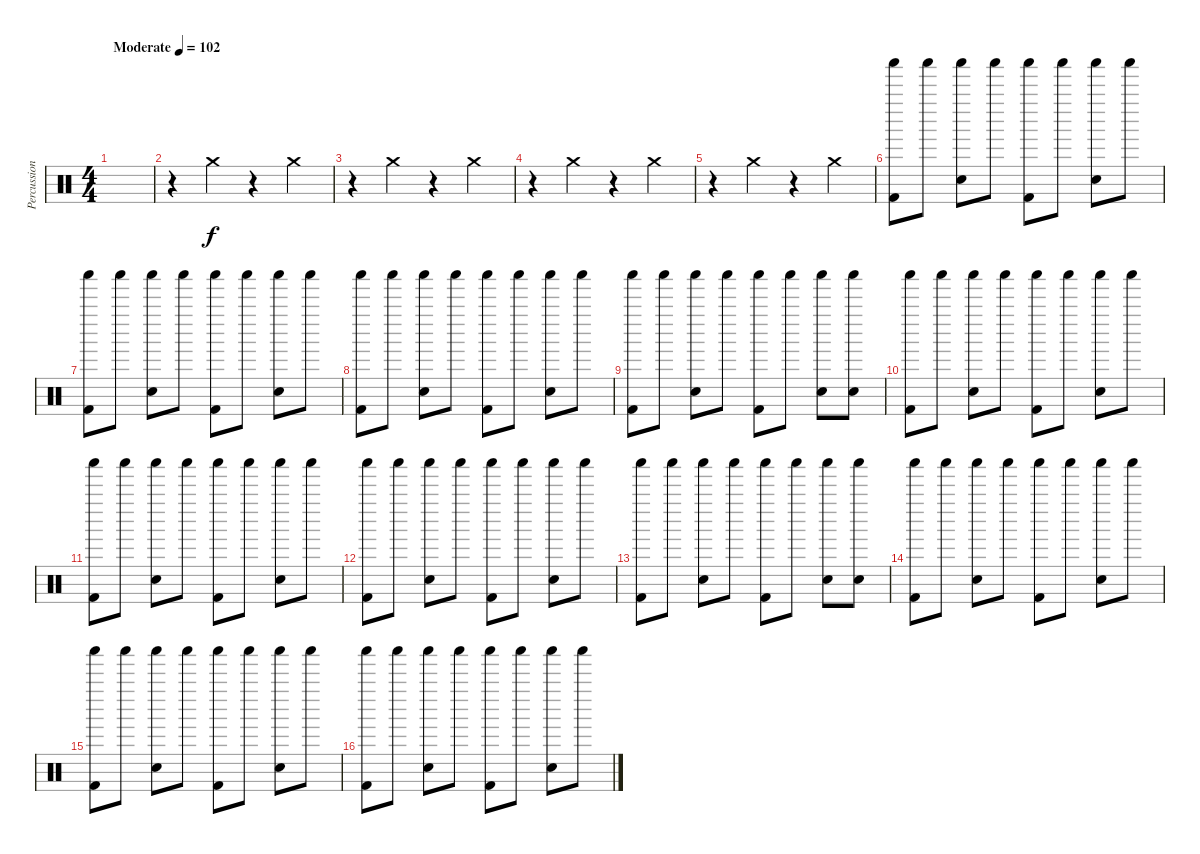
\track ("Percussioni" "Percussion") {instrument percussion}
\staff {score}
\articulation defaults
\ts (4 4)
\tempo (102 "Moderate")
\clef neutral
\ks c
|
r.4 "Crash medium (hit)".4 r.4 "Crash medium (hit)".4 |
r.4 "Crash medium (hit)".4 r.4 "Crash medium (hit)".4 |
r.4 "Crash medium (hit)".4 r.4 "Crash medium (hit)".4 |
r.4 "Crash medium (hit)".4 r.4 "Crash medium (hit)".4 |
("Kick (hit) 2" "Shaker (hit)").8 "Shaker (hit)".8 ("Snare (hit) 2" "Shaker (hit)").8 "Shaker (hit)".8 ("Kick (hit) 2" "Shaker (hit)").8 "Shaker (hit)".8 ("Snare (hit) 2" "Shaker (hit)").8 "Shaker (hit)".8 |
("Kick (hit) 2" "Shaker (hit)").8 "Shaker (hit)".8 ("Snare (hit) 2" "Shaker (hit)").8 "Shaker (hit)".8 ("Kick (hit) 2" "Shaker (hit)").8 "Shaker (hit)".8 ("Snare (hit) 2" "Shaker (hit)").8 "Shaker (hit)".8 |
("Kick (hit) 2" "Shaker (hit)").8 "Shaker (hit)".8 ("Snare (hit) 2" "Shaker (hit)").8 "Shaker (hit)".8 ("Kick (hit) 2" "Shaker (hit)").8 "Shaker (hit)".8 ("Snare (hit) 2" "Shaker (hit)").8 "Shaker (hit)".8 |
("Kick (hit) 2" "Shaker (hit)").8 "Shaker (hit)".8 ("Snare (hit) 2" "Shaker (hit)").8 "Shaker (hit)".8 ("Kick (hit) 2" "Shaker (hit)").8 "Shaker (hit)".8 ("Snare (hit) 2" "Shaker (hit)").8 ("Snare (hit) 2" "Shaker (hit)").8 |
("Kick (hit) 2" "Shaker (hit)").8 "Shaker (hit)".8 ("Snare (hit) 2" "Shaker (hit)").8 "Shaker (hit)".8 ("Kick (hit) 2" "Shaker (hit)").8 "Shaker (hit)".8 ("Snare (hit) 2" "Shaker (hit)").8 "Shaker (hit)".8 |
("Kick (hit) 2" "Shaker (hit)").8 "Shaker (hit)".8 ("Snare (hit) 2" "Shaker (hit)").8 "Shaker (hit)".8 ("Kick (hit) 2" "Shaker (hit)").8 "Shaker (hit)".8 ("Snare (hit) 2" "Shaker (hit)").8 "Shaker (hit)".8 |
("Kick (hit) 2" "Shaker (hit)").8 "Shaker (hit)".8 ("Snare (hit) 2" "Shaker (hit)").8 "Shaker (hit)".8 ("Kick (hit) 2" "Shaker (hit)").8 "Shaker (hit)".8 ("Snare (hit) 2" "Shaker (hit)").8 "Shaker (hit)".8 |
("Kick (hit) 2" "Shaker (hit)").8 "Shaker (hit)".8 ("Snare (hit) 2" "Shaker (hit)").8 "Shaker (hit)".8 ("Kick (hit) 2" "Shaker (hit)").8 "Shaker (hit)".8 ("Snare (hit) 2" "Shaker (hit)").8 ("Snare (hit) 2" "Shaker (hit)").8 |
("Kick (hit) 2" "Shaker (hit)").8 "Shaker (hit)".8 ("Snare (hit) 2" "Shaker (hit)").8 "Shaker (hit)".8 ("Kick (hit) 2" "Shaker (hit)").8 "Shaker (hit)".8 ("Snare (hit) 2" "Shaker (hit)").8 "Shaker (hit)".8 |
("Kick (hit) 2" "Shaker (hit)").8 "Shaker (hit)".8 ("Snare (hit) 2" "Shaker (hit)").8 "Shaker (hit)".8 ("Kick (hit) 2" "Shaker (hit)").8 "Shaker (hit)".8 ("Snare (hit) 2" "Shaker (hit)").8 "Shaker (hit)".8 |
("Kick (hit) 2" "Shaker (hit)").8 "Shaker (hit)".8 ("Snare (hit) 2" "Shaker (hit)").8 "Shaker (hit)".8 ("Kick (hit) 2" "Shaker (hit)").8 "Shaker (hit)".8 ("Snare (hit) 2" "Shaker (hit)").8 "Shaker (hit)".8
